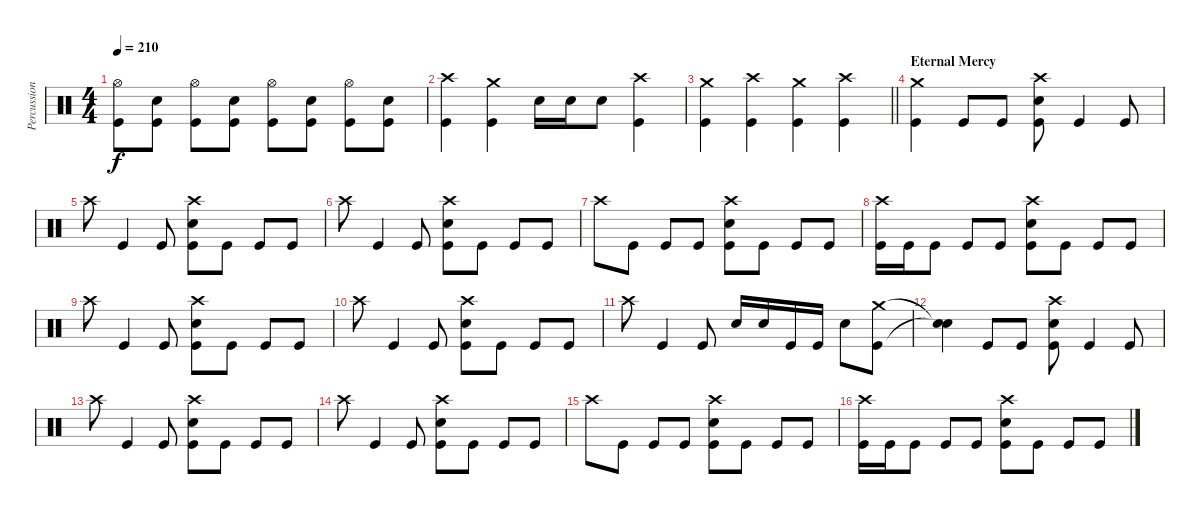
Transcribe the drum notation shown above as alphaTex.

\track ("Percussion" "Percussion") {instrument percussion}
\staff {score}
\articulation defaults
\ts (4 4)
\tempo 210
\clef neutral
\ks c
("Hi-Hat (open)" "Kick (hit)").8{dy f} ("Electric Snare (hit)" "Kick (hit)").8 ("Hi-Hat (open)" "Kick (hit)").8 ("Electric Snare (hit)" "Kick (hit)").8 ("Hi-Hat (open)" "Kick (hit)").8 ("Electric Snare (hit)" "Kick (hit)").8 ("Hi-Hat (open)" "Kick (hit)").8 ("Electric Snare (hit)" "Kick (hit)").8 |
("Crash high (hit)" "Kick (hit)").4 ("Crash medium (hit)" "Kick (hit)").4 "Electric Snare (hit)".16 "Electric Snare (hit)".16 "Electric Snare (hit)".8 ("Crash high (hit)" "Kick (hit)").4 |
\barLineRight lightlight
("Crash medium (hit)" "Kick (hit)").4 ("Crash high (hit)" "Kick (hit)").4 ("Crash medium (hit)" "Kick (hit)").4 ("Crash high (hit)" "Kick (hit)").4 |
\section ("" "Eternal Mercy")
("Crash medium (hit)" "Kick (hit)").4 "Kick (hit)".8 "Kick (hit)".8 ("Crash high (hit)" "Electric Snare (hit)" "Kick (hit)").8 "Kick (hit)".4 "Kick (hit)".8 |
"Crash high (hit)".8 "Kick (hit)".4 "Kick (hit)".8 ("Crash high (hit)" "Electric Snare (hit)" "Kick (hit)").8 "Kick (hit)".8 "Kick (hit)".8 "Kick (hit)".8 |
"Crash high (hit)".8 "Kick (hit)".4 "Kick (hit)".8 ("Crash high (hit)" "Electric Snare (hit)" "Kick (hit)").8 "Kick (hit)".8 "Kick (hit)".8 "Kick (hit)".8 |
"Crash high (hit)".8 "Kick (hit)".8 "Kick (hit)".8 "Kick (hit)".8 ("Crash high (hit)" "Electric Snare (hit)" "Kick (hit)").8 "Kick (hit)".8 "Kick (hit)".8 "Kick (hit)".8 |
("Crash high (hit)" "Kick (hit)").16 "Kick (hit)".16 "Kick (hit)".8 "Kick (hit)".8 "Kick (hit)".8 ("Crash high (hit)" "Electric Snare (hit)" "Kick (hit)").8 "Kick (hit)".8 "Kick (hit)".8 "Kick (hit)".8 |
"Crash high (hit)".8 "Kick (hit)".4 "Kick (hit)".8 ("Crash high (hit)" "Electric Snare (hit)" "Kick (hit)").8 "Kick (hit)".8 "Kick (hit)".8 "Kick (hit)".8 |
"Crash high (hit)".8 "Kick (hit)".4 "Kick (hit)".8 ("Crash high (hit)" "Electric Snare (hit)" "Kick (hit)").8 "Kick (hit)".8 "Kick (hit)".8 "Kick (hit)".8 |
"Crash high (hit)".8 "Kick (hit)".4 "Kick (hit)".8 "Electric Snare (hit)".16 "Electric Snare (hit)".16 "Kick (hit)".16 "Kick (hit)".16 "Electric Snare (hit)".8 ("Crash medium (hit)" "Kick (hit)").8 |
("Snare (hit)"{t} "Snare (hit)"{t}).4 "Kick (hit)".8 "Kick (hit)".8 ("Crash high (hit)" "Electric Snare (hit)" "Kick (hit)").8 "Kick (hit)".4 "Kick (hit)".8 |
"Crash high (hit)".8 "Kick (hit)".4 "Kick (hit)".8 ("Crash high (hit)" "Electric Snare (hit)" "Kick (hit)").8 "Kick (hit)".8 "Kick (hit)".8 "Kick (hit)".8 |
"Crash high (hit)".8 "Kick (hit)".4 "Kick (hit)".8 ("Crash high (hit)" "Electric Snare (hit)" "Kick (hit)").8 "Kick (hit)".8 "Kick (hit)".8 "Kick (hit)".8 |
"Crash high (hit)".8 "Kick (hit)".8 "Kick (hit)".8 "Kick (hit)".8 ("Crash high (hit)" "Electric Snare (hit)" "Kick (hit)").8 "Kick (hit)".8 "Kick (hit)".8 "Kick (hit)".8 |
("Crash high (hit)" "Kick (hit)").16 "Kick (hit)".16 "Kick (hit)".8 "Kick (hit)".8 "Kick (hit)".8 ("Crash high (hit)" "Electric Snare (hit)" "Kick (hit)").8 "Kick (hit)".8 "Kick (hit)".8 "Kick (hit)".8
